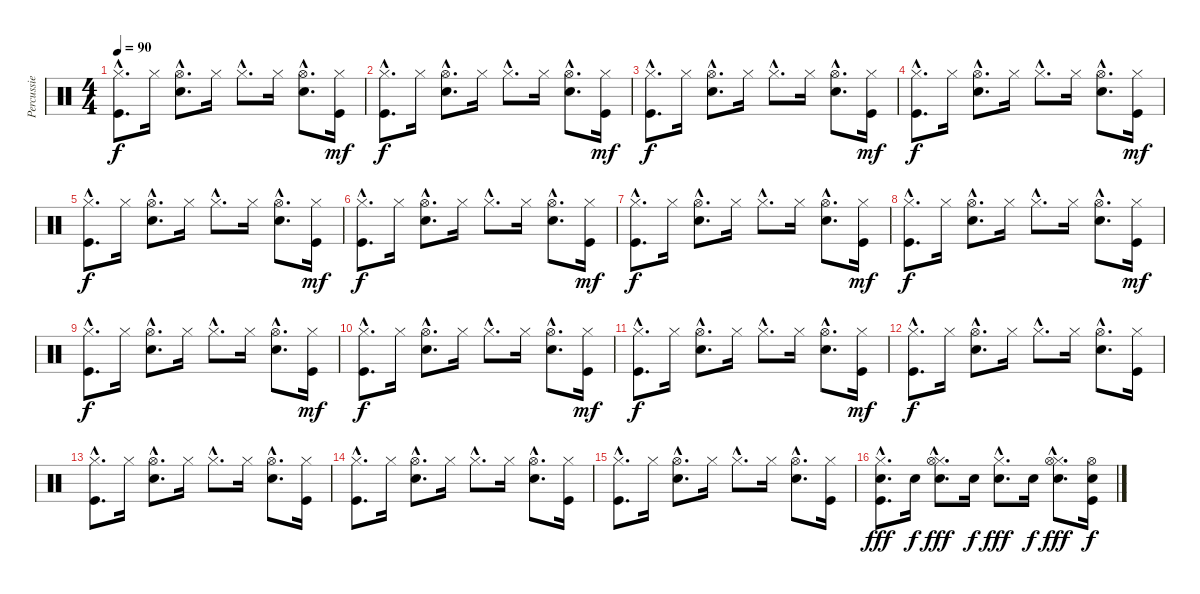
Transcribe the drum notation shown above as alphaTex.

\track ("Percussie" "Percussie") {instrument percussion}
\staff {score}
\articulation defaults
\ts (4 4)
\tempo 90
\clef neutral
\ks c
("Hi-Hat (closed)"{hac} "Kick (hit)"{hac}).8{d dy f} "Hi-Hat (closed)".16 ("Snare (hit) 2"{hac} "Hi-Hat (open)"{hac}).8{d} "Hi-Hat (closed)".16 "Hi-Hat (closed)"{hac}.8{d} "Hi-Hat (closed)".16 ("Snare (hit) 2"{hac} "Hi-Hat (open)"{hac}).8{d} ("Hi-Hat (closed)" "Kick (hit)").16{dy mf} |
("Hi-Hat (closed)"{hac} "Kick (hit)"{hac}).8{d dy f} "Hi-Hat (closed)".16 ("Snare (hit) 2"{hac} "Hi-Hat (open)"{hac}).8{d} "Hi-Hat (closed)".16 "Hi-Hat (closed)"{hac}.8{d} "Hi-Hat (closed)".16 ("Snare (hit) 2"{hac} "Hi-Hat (open)"{hac}).8{d} ("Hi-Hat (closed)" "Kick (hit)").16{dy mf} |
("Hi-Hat (closed)"{hac} "Kick (hit)"{hac}).8{d dy f} "Hi-Hat (closed)".16 ("Snare (hit) 2"{hac} "Hi-Hat (open)"{hac}).8{d} "Hi-Hat (closed)".16 "Hi-Hat (closed)"{hac}.8{d} "Hi-Hat (closed)".16 ("Snare (hit) 2"{hac} "Hi-Hat (open)"{hac}).8{d} ("Hi-Hat (closed)" "Kick (hit)").16{dy mf} |
("Hi-Hat (closed)"{hac} "Kick (hit)"{hac}).8{d dy f} "Hi-Hat (closed)".16 ("Snare (hit) 2"{hac} "Hi-Hat (open)"{hac}).8{d} "Hi-Hat (closed)".16 "Hi-Hat (closed)"{hac}.8{d} "Hi-Hat (closed)".16 ("Snare (hit) 2"{hac} "Hi-Hat (open)"{hac}).8{d} ("Hi-Hat (closed)" "Kick (hit)").16{dy mf} |
("Hi-Hat (closed)"{hac} "Kick (hit)"{hac}).8{d dy f} "Hi-Hat (closed)".16 ("Snare (hit) 2"{hac} "Hi-Hat (open)"{hac}).8{d} "Hi-Hat (closed)".16 "Hi-Hat (closed)"{hac}.8{d} "Hi-Hat (closed)".16 ("Snare (hit) 2"{hac} "Hi-Hat (open)"{hac}).8{d} ("Hi-Hat (closed)" "Kick (hit)").16{dy mf} |
("Hi-Hat (closed)"{hac} "Kick (hit)"{hac}).8{d dy f} "Hi-Hat (closed)".16 ("Snare (hit) 2"{hac} "Hi-Hat (open)"{hac}).8{d} "Hi-Hat (closed)".16 "Hi-Hat (closed)"{hac}.8{d} "Hi-Hat (closed)".16 ("Snare (hit) 2"{hac} "Hi-Hat (open)"{hac}).8{d} ("Hi-Hat (closed)" "Kick (hit)").16{dy mf} |
("Hi-Hat (closed)"{hac} "Kick (hit)"{hac}).8{d dy f} "Hi-Hat (closed)".16 ("Snare (hit) 2"{hac} "Hi-Hat (open)"{hac}).8{d} "Hi-Hat (closed)".16 "Hi-Hat (closed)"{hac}.8{d} "Hi-Hat (closed)".16 ("Snare (hit) 2"{hac} "Hi-Hat (open)"{hac}).8{d} ("Hi-Hat (closed)" "Kick (hit)").16{dy mf} |
("Hi-Hat (closed)"{hac} "Kick (hit)"{hac}).8{d dy f} "Hi-Hat (closed)".16 ("Snare (hit) 2"{hac} "Hi-Hat (open)"{hac}).8{d} "Hi-Hat (closed)".16 "Hi-Hat (closed)"{hac}.8{d} "Hi-Hat (closed)".16 ("Snare (hit) 2"{hac} "Hi-Hat (open)"{hac}).8{d} ("Hi-Hat (closed)" "Kick (hit)").16{dy mf} |
("Hi-Hat (closed)"{hac} "Kick (hit)"{hac}).8{d dy f} "Hi-Hat (closed)".16 ("Snare (hit) 2"{hac} "Hi-Hat (open)"{hac}).8{d} "Hi-Hat (closed)".16 "Hi-Hat (closed)"{hac}.8{d} "Hi-Hat (closed)".16 ("Snare (hit) 2"{hac} "Hi-Hat (open)"{hac}).8{d} ("Hi-Hat (closed)" "Kick (hit)").16{dy mf} |
("Hi-Hat (closed)"{hac} "Kick (hit)"{hac}).8{d dy f} "Hi-Hat (closed)".16 ("Snare (hit) 2"{hac} "Hi-Hat (open)"{hac}).8{d} "Hi-Hat (closed)".16 "Hi-Hat (closed)"{hac}.8{d} "Hi-Hat (closed)".16 ("Snare (hit) 2"{hac} "Hi-Hat (open)"{hac}).8{d} ("Hi-Hat (closed)" "Kick (hit)").16{dy mf} |
("Hi-Hat (closed)"{hac} "Kick (hit)"{hac}).8{d dy f} "Hi-Hat (closed)".16 ("Snare (hit) 2"{hac} "Hi-Hat (open)"{hac}).8{d} "Hi-Hat (closed)".16 "Hi-Hat (closed)"{hac}.8{d} "Hi-Hat (closed)".16 ("Snare (hit) 2"{hac} "Hi-Hat (open)"{hac}).8{d} ("Hi-Hat (closed)" "Kick (hit)").16{dy mf} |
("Hi-Hat (closed)"{hac} "Kick (hit)"{hac}).8{d dy f} "Hi-Hat (closed)".16 ("Snare (hit) 2"{hac} "Hi-Hat (open)"{hac}).8{d} "Hi-Hat (closed)".16 "Hi-Hat (closed)"{hac}.8{d} "Hi-Hat (closed)".16 ("Snare (hit) 2"{hac} "Hi-Hat (open)"{hac}).8{d} ("Hi-Hat (closed)" "Kick (hit)").16 |
("Hi-Hat (closed)"{hac} "Kick (hit)"{hac}).8{d} "Hi-Hat (closed)".16 ("Snare (hit) 2"{hac} "Hi-Hat (open)"{hac}).8{d} "Hi-Hat (closed)".16 "Hi-Hat (closed)"{hac}.8{d} "Hi-Hat (closed)".16 ("Snare (hit) 2"{hac} "Hi-Hat (open)"{hac}).8{d} ("Hi-Hat (closed)" "Kick (hit)").16 |
("Hi-Hat (closed)"{hac} "Kick (hit)"{hac}).8{d} "Hi-Hat (closed)".16 ("Snare (hit) 2"{hac} "Hi-Hat (open)"{hac}).8{d} "Hi-Hat (closed)".16 "Hi-Hat (closed)"{hac}.8{d} "Hi-Hat (closed)".16 ("Snare (hit) 2"{hac} "Hi-Hat (open)"{hac}).8{d} ("Hi-Hat (closed)" "Kick (hit)").16 |
("Hi-Hat (closed)"{hac} "Kick (hit)"{hac}).8{d} "Hi-Hat (closed)".16 ("Snare (hit) 2"{hac} "Hi-Hat (open)"{hac}).8{d} "Hi-Hat (closed)".16 "Hi-Hat (closed)"{hac}.8{d} "Hi-Hat (closed)".16 ("Snare (hit) 2"{hac} "Hi-Hat (open)"{hac}).8{d} ("Hi-Hat (closed)" "Kick (hit)").16 |
("Hi-Hat (closed)"{hac} "Snare (hit) 2"{hac} "Kick (hit)"{hac}).8{d dy fff} "Snare (hit) 2".16{dy f} ("Hi-Hat (closed)"{hac} "Snare (hit) 2"{hac} "Hi-Hat (open)"{hac}).8{d dy fff} "Snare (hit) 2".16{dy f} ("Hi-Hat (closed)"{hac} "Snare (hit) 2"{hac}).8{d dy fff} "Snare (hit) 2".16{dy f} ("Hi-Hat (closed)"{hac} "Snare (hit) 2"{hac} "Hi-Hat (open)"{hac}).8{d dy fff} ("Hi-Hat (open)" "Snare (hit) 2" "Kick (hit)").16{dy f}
